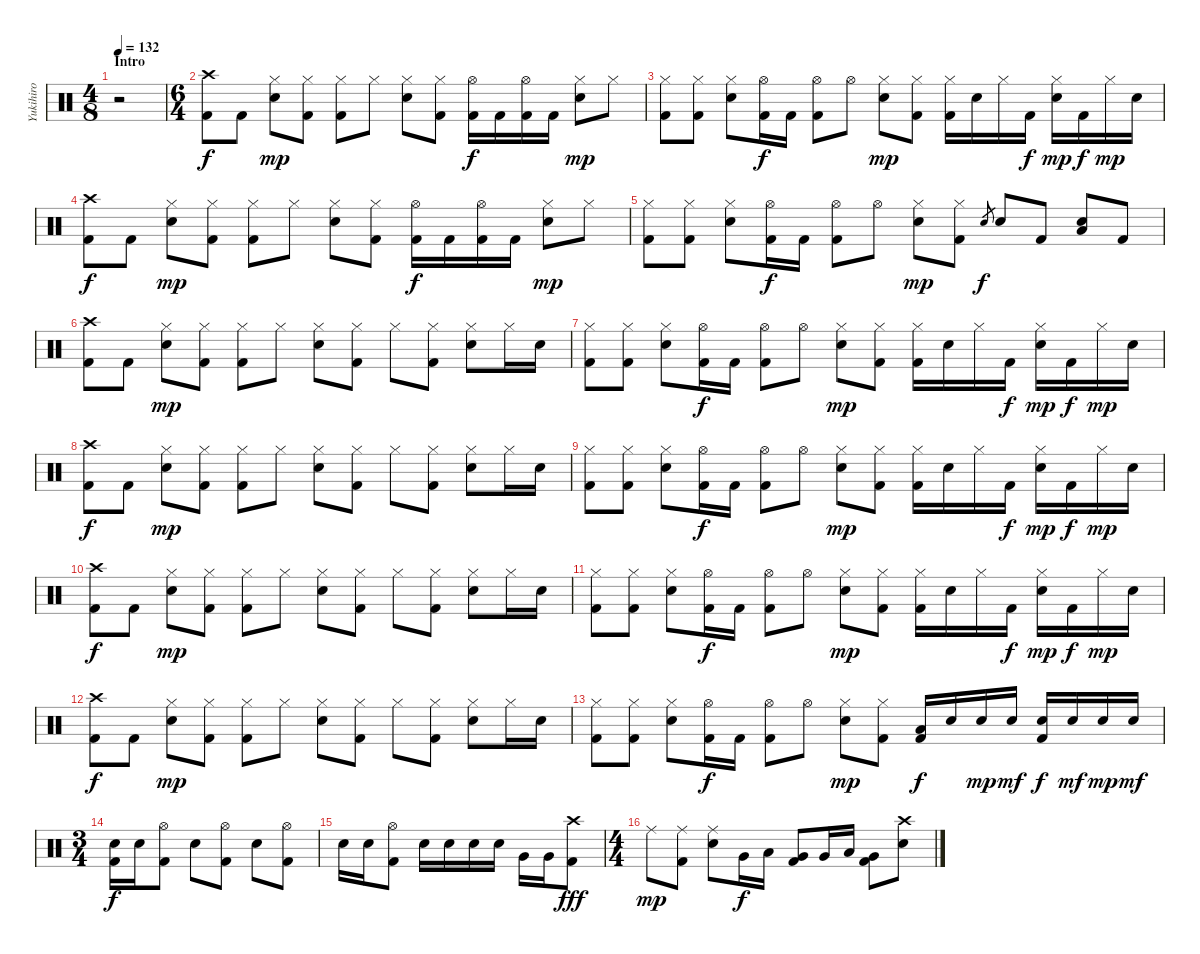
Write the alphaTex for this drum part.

\track ("Yukihiro" "Yukihiro") {instrument percussion}
\staff {score}
\articulation defaults
\ts (4 8)
\section ("" "Intro")
\tempo 132
\clef neutral
\ks c
r.2{dy f} |
\ts (6 4)
("Crash high (hit)" "Kick (hit) 2").8 "Kick (hit) 2".8 ("Hi-Hat (closed)" "Electric Snare (hit)").8{dy mp} ("Hi-Hat (closed)" "Kick (hit) 2").8 ("Hi-Hat (closed)" "Kick (hit) 2").8 "Hi-Hat (closed)".8 ("Hi-Hat (closed)" "Electric Snare (hit)").8 ("Hi-Hat (closed)" "Kick (hit) 2").8 ("Hi-Hat (open)" "Kick (hit) 2").16{dy f} "Kick (hit) 2".16 ("Hi-Hat (open)" "Kick (hit) 2").16 "Kick (hit) 2".16 ("Hi-Hat (closed)" "Electric Snare (hit)").8{dy mp} "Hi-Hat (closed)".8 |
("Hi-Hat (closed)" "Kick (hit) 2").8 ("Hi-Hat (closed)" "Kick (hit) 2").8 ("Hi-Hat (closed)" "Electric Snare (hit)").8 ("Hi-Hat (open)" "Kick (hit) 2").16{dy f} "Kick (hit) 2".16 ("Hi-Hat (open)" "Kick (hit) 2").8 "Hi-Hat (open)".8 ("Hi-Hat (closed)" "Electric Snare (hit)").8{dy mp} ("Hi-Hat (closed)" "Kick (hit) 2").8 ("Hi-Hat (closed)" "Kick (hit) 2").16 "Electric Snare (hit)".16 "Hi-Hat (closed)".16 "Kick (hit) 2".16{dy f} ("Hi-Hat (closed)" "Electric Snare (hit)").16{dy mp} "Kick (hit) 2".16{dy f} "Hi-Hat (closed)".16{dy mp} "Electric Snare (hit)".16 |
("Crash high (hit)" "Kick (hit) 2").8{dy f} "Kick (hit) 2".8 ("Hi-Hat (closed)" "Electric Snare (hit)").8{dy mp} ("Hi-Hat (closed)" "Kick (hit) 2").8 ("Hi-Hat (closed)" "Kick (hit) 2").8 "Hi-Hat (closed)".8 ("Hi-Hat (closed)" "Electric Snare (hit)").8 ("Hi-Hat (closed)" "Kick (hit) 2").8 ("Hi-Hat (open)" "Kick (hit) 2").16{dy f} "Kick (hit) 2".16 ("Hi-Hat (open)" "Kick (hit) 2").16 "Kick (hit) 2".16 ("Hi-Hat (closed)" "Electric Snare (hit)").8{dy mp} "Hi-Hat (closed)".8 |
("Hi-Hat (closed)" "Kick (hit) 2").8 ("Hi-Hat (closed)" "Kick (hit) 2").8 ("Hi-Hat (closed)" "Electric Snare (hit)").8 ("Hi-Hat (open)" "Kick (hit) 2").16{dy f} "Kick (hit) 2".16 ("Hi-Hat (open)" "Kick (hit) 2").8 "Hi-Hat (open)".8 ("Hi-Hat (closed)" "Electric Snare (hit)").8{dy mp} ("Hi-Hat (closed)" "Kick (hit) 2").8 "Electric Snare (hit)".8{gr dy f} "Electric Snare (hit)".8 "Kick (hit) 2".8 ("Electric Snare (hit)" "Low Tom (hit)").8 "Kick (hit) 2".8 |
("Crash high (hit)" "Kick (hit) 2").8 "Kick (hit) 2".8 ("Hi-Hat (closed)" "Electric Snare (hit)").8{dy mp} ("Hi-Hat (closed)" "Kick (hit) 2").8 ("Hi-Hat (closed)" "Kick (hit) 2").8 "Hi-Hat (closed)".8 ("Hi-Hat (closed)" "Electric Snare (hit)").8 ("Hi-Hat (closed)" "Kick (hit) 2").8 "Hi-Hat (closed)".8 ("Hi-Hat (closed)" "Kick (hit) 2").8 ("Hi-Hat (closed)" "Electric Snare (hit)").8 "Hi-Hat (closed)".16 "Electric Snare (hit)".16 |
("Hi-Hat (closed)" "Kick (hit) 2").8 ("Hi-Hat (closed)" "Kick (hit) 2").8 ("Hi-Hat (closed)" "Electric Snare (hit)").8 ("Hi-Hat (open)" "Kick (hit) 2").16{dy f} "Kick (hit) 2".16 ("Hi-Hat (open)" "Kick (hit) 2").8 "Hi-Hat (open)".8 ("Hi-Hat (closed)" "Electric Snare (hit)").8{dy mp} ("Hi-Hat (closed)" "Kick (hit) 2").8 ("Hi-Hat (closed)" "Kick (hit) 2").16 "Electric Snare (hit)".16 "Hi-Hat (closed)".16 "Kick (hit) 2".16{dy f} ("Hi-Hat (closed)" "Electric Snare (hit)").16{dy mp} "Kick (hit) 2".16{dy f} "Hi-Hat (closed)".16{dy mp} "Electric Snare (hit)".16 |
("Crash high (hit)" "Kick (hit) 2").8{dy f} "Kick (hit) 2".8 ("Hi-Hat (closed)" "Electric Snare (hit)").8{dy mp} ("Hi-Hat (closed)" "Kick (hit) 2").8 ("Hi-Hat (closed)" "Kick (hit) 2").8 "Hi-Hat (closed)".8 ("Hi-Hat (closed)" "Electric Snare (hit)").8 ("Hi-Hat (closed)" "Kick (hit) 2").8 "Hi-Hat (closed)".8 ("Hi-Hat (closed)" "Kick (hit) 2").8 ("Hi-Hat (closed)" "Electric Snare (hit)").8 "Hi-Hat (closed)".16 "Electric Snare (hit)".16 |
("Hi-Hat (closed)" "Kick (hit) 2").8 ("Hi-Hat (closed)" "Kick (hit) 2").8 ("Hi-Hat (closed)" "Electric Snare (hit)").8 ("Hi-Hat (open)" "Kick (hit) 2").16{dy f} "Kick (hit) 2".16 ("Hi-Hat (open)" "Kick (hit) 2").8 "Hi-Hat (open)".8 ("Hi-Hat (closed)" "Electric Snare (hit)").8{dy mp} ("Hi-Hat (closed)" "Kick (hit) 2").8 ("Hi-Hat (closed)" "Kick (hit) 2").16 "Electric Snare (hit)".16 "Hi-Hat (closed)".16 "Kick (hit) 2".16{dy f} ("Hi-Hat (closed)" "Electric Snare (hit)").16{dy mp} "Kick (hit) 2".16{dy f} "Hi-Hat (closed)".16{dy mp} "Electric Snare (hit)".16 |
("Crash high (hit)" "Kick (hit) 2").8{dy f} "Kick (hit) 2".8 ("Hi-Hat (closed)" "Electric Snare (hit)").8{dy mp} ("Hi-Hat (closed)" "Kick (hit) 2").8 ("Hi-Hat (closed)" "Kick (hit) 2").8 "Hi-Hat (closed)".8 ("Hi-Hat (closed)" "Electric Snare (hit)").8 ("Hi-Hat (closed)" "Kick (hit) 2").8 "Hi-Hat (closed)".8 ("Hi-Hat (closed)" "Kick (hit) 2").8 ("Hi-Hat (closed)" "Electric Snare (hit)").8 "Hi-Hat (closed)".16 "Electric Snare (hit)".16 |
("Hi-Hat (closed)" "Kick (hit) 2").8 ("Hi-Hat (closed)" "Kick (hit) 2").8 ("Hi-Hat (closed)" "Electric Snare (hit)").8 ("Hi-Hat (open)" "Kick (hit) 2").16{dy f} "Kick (hit) 2".16 ("Hi-Hat (open)" "Kick (hit) 2").8 "Hi-Hat (open)".8 ("Hi-Hat (closed)" "Electric Snare (hit)").8{dy mp} ("Hi-Hat (closed)" "Kick (hit) 2").8 ("Hi-Hat (closed)" "Kick (hit) 2").16 "Electric Snare (hit)".16 "Hi-Hat (closed)".16 "Kick (hit) 2".16{dy f} ("Hi-Hat (closed)" "Electric Snare (hit)").16{dy mp} "Kick (hit) 2".16{dy f} "Hi-Hat (closed)".16{dy mp} "Electric Snare (hit)".16 |
("Crash high (hit)" "Kick (hit) 2").8{dy f} "Kick (hit) 2".8 ("Hi-Hat (closed)" "Electric Snare (hit)").8{dy mp} ("Hi-Hat (closed)" "Kick (hit) 2").8 ("Hi-Hat (closed)" "Kick (hit) 2").8 "Hi-Hat (closed)".8 ("Hi-Hat (closed)" "Electric Snare (hit)").8 ("Hi-Hat (closed)" "Kick (hit) 2").8 "Hi-Hat (closed)".8 ("Hi-Hat (closed)" "Kick (hit) 2").8 ("Hi-Hat (closed)" "Electric Snare (hit)").8 "Hi-Hat (closed)".16 "Electric Snare (hit)".16 |
("Hi-Hat (closed)" "Kick (hit) 2").8 ("Hi-Hat (closed)" "Kick (hit) 2").8 ("Hi-Hat (closed)" "Electric Snare (hit)").8 ("Hi-Hat (open)" "Kick (hit) 2").16{dy f} "Kick (hit) 2".16 ("Hi-Hat (open)" "Kick (hit) 2").8 "Hi-Hat (open)".8 ("Hi-Hat (closed)" "Electric Snare (hit)").8{dy mp} ("Hi-Hat (closed)" "Kick (hit) 2").8 ("Low Tom (hit)" "Kick (hit) 2").16{dy f} "Electric Snare (hit)".16 "Electric Snare (hit)".16{dy mp} "Electric Snare (hit)".16{dy mf} ("Electric Snare (hit)" "Kick (hit) 2").16{dy f} "Electric Snare (hit)".16{dy mf} "Electric Snare (hit)".16{dy mp} "Electric Snare (hit)".16{dy mf} |
\ts (3 4)
("Electric Snare (hit)" "Kick (hit) 2").16{dy f} "Electric Snare (hit)".16 ("Hi-Hat (open)" "Kick (hit) 2").8 "Electric Snare (hit)".8 ("Hi-Hat (open)" "Kick (hit) 2").8 "Electric Snare (hit)".8 ("Hi-Hat (open)" "Kick (hit) 2").8 |
"Electric Snare (hit)".16 "Electric Snare (hit)".16 ("Hi-Hat (open)" "Kick (hit) 2").8 "Electric Snare (hit)".16 "Electric Snare (hit)".16 "Electric Snare (hit)".16 "Electric Snare (hit)".16 "Very Low Tom (hit)".16 "Very Low Tom (hit)".16 ("Crash high (hit)" "Kick (hit) 2").8{dy fff} |
\ts (4 4)
"Ride (middle)".8{dy mp} ("Ride (middle)" "Kick (hit) 2").8 ("Ride (middle)" "Electric Snare (hit)").8 "Very Low Tom (hit)".16{dy f} "Low Tom (hit)".16 ("Very Low Tom (hit)" "Kick (hit) 2").8 "Very Low Tom (hit)".16 "Low Tom (hit)".16 ("Very Low Tom (hit)" "Kick (hit) 2").8 ("Crash high (hit)" "Electric Snare (hit)").8
